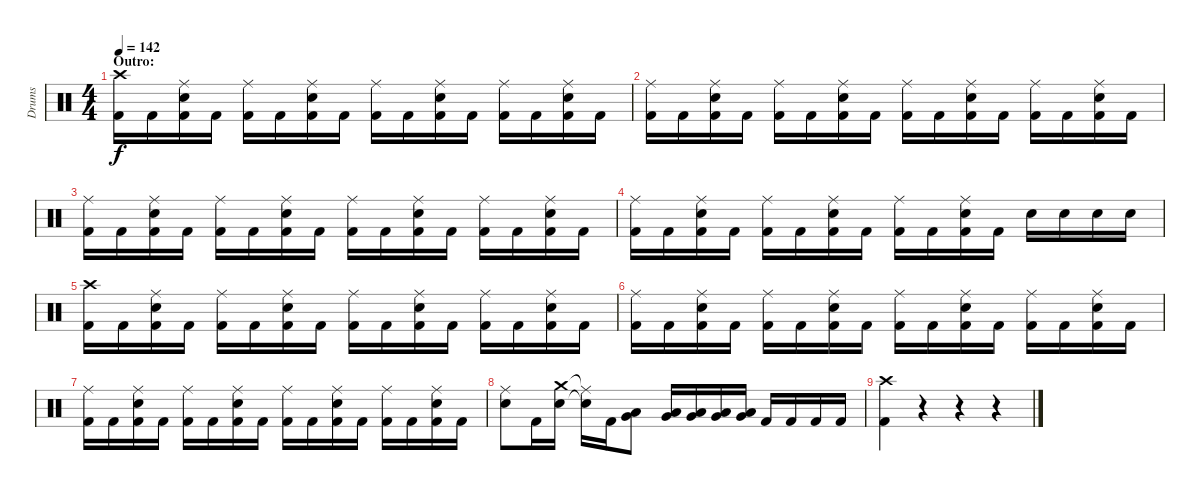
\track ("Drums" "Drums") {instrument percussion}
\staff {score}
\articulation defaults
\ts (4 4)
\section ("" "Outro:")
\tempo 142
\clef neutral
\ks c
("Crash high (hit)" "Kick (hit) 2").16{dy f} "Kick (hit) 2".16 ("Ride (middle)" "Electric Snare (hit)" "Kick (hit) 2").16 "Kick (hit) 2".16 ("Ride (middle)" "Kick (hit) 2").16 "Kick (hit) 2".16 ("Ride (middle)" "Electric Snare (hit)" "Kick (hit) 2").16 "Kick (hit) 2".16 ("Ride (middle)" "Kick (hit) 2").16 "Kick (hit) 2".16 ("Ride (middle)" "Electric Snare (hit)" "Kick (hit) 2").16 "Kick (hit) 2".16 ("Ride (middle)" "Kick (hit) 2").16 "Kick (hit) 2".16 ("Ride (middle)" "Electric Snare (hit)" "Kick (hit) 2").16 "Kick (hit) 2".16 |
("Ride (middle)" "Kick (hit) 2").16 "Kick (hit) 2".16 ("Ride (middle)" "Electric Snare (hit)" "Kick (hit) 2").16 "Kick (hit) 2".16 ("Ride (middle)" "Kick (hit) 2").16 "Kick (hit) 2".16 ("Ride (middle)" "Electric Snare (hit)" "Kick (hit) 2").16 "Kick (hit) 2".16 ("Ride (middle)" "Kick (hit) 2").16 "Kick (hit) 2".16 ("Ride (middle)" "Electric Snare (hit)" "Kick (hit) 2").16 "Kick (hit) 2".16 ("Ride (middle)" "Kick (hit) 2").16 "Kick (hit) 2".16 ("Ride (middle)" "Electric Snare (hit)" "Kick (hit) 2").16 "Kick (hit) 2".16 |
("Ride (middle)" "Kick (hit) 2").16 "Kick (hit) 2".16 ("Ride (middle)" "Electric Snare (hit)" "Kick (hit) 2").16 "Kick (hit) 2".16 ("Ride (middle)" "Kick (hit) 2").16 "Kick (hit) 2".16 ("Ride (middle)" "Electric Snare (hit)" "Kick (hit) 2").16 "Kick (hit) 2".16 ("Ride (middle)" "Kick (hit) 2").16 "Kick (hit) 2".16 ("Ride (middle)" "Electric Snare (hit)" "Kick (hit) 2").16 "Kick (hit) 2".16 ("Ride (middle)" "Kick (hit) 2").16 "Kick (hit) 2".16 ("Ride (middle)" "Electric Snare (hit)" "Kick (hit) 2").16 "Kick (hit) 2".16 |
("Ride (middle)" "Kick (hit) 2").16 "Kick (hit) 2".16 ("Ride (middle)" "Electric Snare (hit)" "Kick (hit) 2").16 "Kick (hit) 2".16 ("Ride (middle)" "Kick (hit) 2").16 "Kick (hit) 2".16 ("Ride (middle)" "Electric Snare (hit)" "Kick (hit) 2").16 "Kick (hit) 2".16 ("Ride (middle)" "Kick (hit) 2").16 "Kick (hit) 2".16 ("Ride (middle)" "Electric Snare (hit)" "Kick (hit) 2").16 "Kick (hit) 2".16 "Electric Snare (hit)".16 "Electric Snare (hit)".16 "Electric Snare (hit)".16 "Electric Snare (hit)".16 |
("Crash high (hit)" "Kick (hit) 2").16 "Kick (hit) 2".16 ("Ride (middle)" "Electric Snare (hit)" "Kick (hit) 2").16 "Kick (hit) 2".16 ("Ride (middle)" "Kick (hit) 2").16 "Kick (hit) 2".16 ("Ride (middle)" "Electric Snare (hit)" "Kick (hit) 2").16 "Kick (hit) 2".16 ("Ride (middle)" "Kick (hit) 2").16 "Kick (hit) 2".16 ("Ride (middle)" "Electric Snare (hit)" "Kick (hit) 2").16 "Kick (hit) 2".16 ("Ride (middle)" "Kick (hit) 2").16 "Kick (hit) 2".16 ("Ride (middle)" "Electric Snare (hit)" "Kick (hit) 2").16 "Kick (hit) 2".16 |
("Ride (middle)" "Kick (hit) 2").16 "Kick (hit) 2".16 ("Ride (middle)" "Electric Snare (hit)" "Kick (hit) 2").16 "Kick (hit) 2".16 ("Ride (middle)" "Kick (hit) 2").16 "Kick (hit) 2".16 ("Ride (middle)" "Electric Snare (hit)" "Kick (hit) 2").16 "Kick (hit) 2".16 ("Ride (middle)" "Kick (hit) 2").16 "Kick (hit) 2".16 ("Ride (middle)" "Electric Snare (hit)" "Kick (hit) 2").16 "Kick (hit) 2".16 ("Ride (middle)" "Kick (hit) 2").16 "Kick (hit) 2".16 ("Ride (middle)" "Electric Snare (hit)" "Kick (hit) 2").16 "Kick (hit) 2".16 |
("Ride (middle)" "Kick (hit) 2").16 "Kick (hit) 2".16 ("Ride (middle)" "Electric Snare (hit)" "Kick (hit) 2").16 "Kick (hit) 2".16 ("Ride (middle)" "Kick (hit) 2").16 "Kick (hit) 2".16 ("Ride (middle)" "Electric Snare (hit)" "Kick (hit) 2").16 "Kick (hit) 2".16 ("Ride (middle)" "Kick (hit) 2").16 "Kick (hit) 2".16 ("Ride (middle)" "Electric Snare (hit)" "Kick (hit) 2").16 "Kick (hit) 2".16 ("Ride (middle)" "Kick (hit) 2").16 "Kick (hit) 2".16 ("Ride (middle)" "Electric Snare (hit)" "Kick (hit) 2").16 "Kick (hit) 2".16 |
("Ride (middle)" "Electric Snare (hit)").8 "Kick (hit) 2".16 ("Crash medium (hit)" "Electric Snare (hit)").16 ("Ride (middle)"{t} "Snare (hit)"{t}).16 "Kick (hit) 2".16 ("Very Low Tom (hit)" "Low Tom (hit)").8 ("Very Low Tom (hit)" "Low Tom (hit)").16 ("Very Low Tom (hit)" "Low Tom (hit)").16 ("Very Low Tom (hit)" "Low Tom (hit)").16 ("Very Low Tom (hit)" "Low Tom (hit)").16 "Kick (hit) 2".16 "Kick (hit) 2".16 "Kick (hit) 2".16 "Kick (hit) 2".16 |
("Crash high (hit)" "Kick (hit) 2").4 r.4 r.4 r.4
